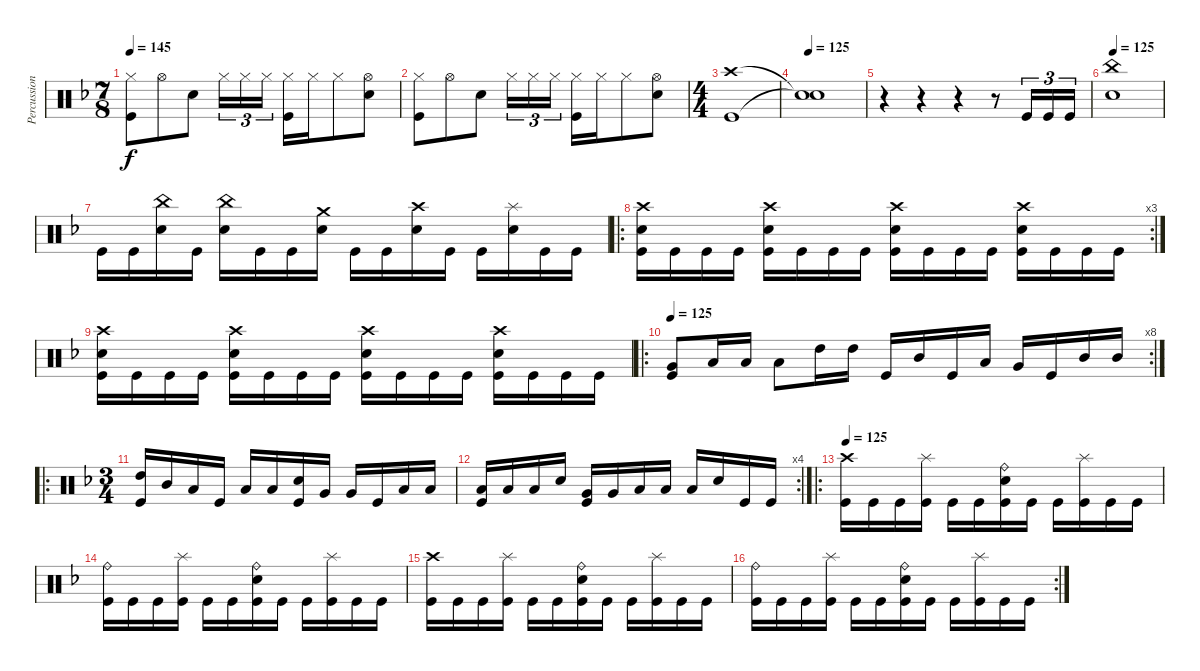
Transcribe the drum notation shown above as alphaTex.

\track ("Percussion" "Percussion") {instrument percussion}
\staff {score}
\articulation defaults
\ts (7 8)
\tempo 145
\clef neutral
\ks f
("Hi-Hat (closed)" "Kick (hit)").8{dy f} "Hi-Hat (open)".8 "Electric Snare (hit)".8 "Hi-Hat (closed)".16{tu (3 2)} "Hi-Hat (closed)".16{tu (3 2)} "Hi-Hat (closed)".16{tu (3 2)} ("Hi-Hat (closed)" "Kick (hit)").16 "Hi-Hat (closed)".16 "Hi-Hat (closed)".8 ("Hi-Hat (open)" "Electric Snare (hit)").8 |
("Hi-Hat (closed)" "Kick (hit)").8 "Hi-Hat (open)".8 "Electric Snare (hit)".8 "Hi-Hat (closed)".16{tu (3 2)} "Hi-Hat (closed)".16{tu (3 2)} "Hi-Hat (closed)".16{tu (3 2)} ("Hi-Hat (closed)" "Kick (hit)").16 "Hi-Hat (closed)".16 "Hi-Hat (closed)".8 ("Hi-Hat (open)" "Electric Snare (hit)").8 |
\ts (4 4)
("Crash high (hit)" "Kick (hit)").1 |
\tempo 125
("Snare (hit)"{t} "Snare (hit)"{t}).1 |
r.4 r.4 r.4 r.8 "Kick (hit)".16{tu (3 2)} "Kick (hit)".16{tu (3 2)} "Kick (hit)".16{tu (3 2)} |
\tempo 125
("China (hit)" "Electric Snare (hit)").1 |
"Kick (hit)".16 "Kick (hit)".16 ("China (hit)" "Electric Snare (hit)").16 "Kick (hit)".16 ("China (hit)" "Electric Snare (hit)").16 "Kick (hit)".16 "Kick (hit)".16 ("Crash medium (hit)" "Electric Snare (hit)").16 "Kick (hit)".16 "Kick (hit)".16 ("Crash high (hit)" "Electric Snare (hit)").16 "Kick (hit)".16 "Kick (hit)".16 ("Splash (hit)" "Electric Snare (hit)").16 "Kick (hit)".16 "Kick (hit)".16 |
\ro
\rc 3
("Crash high (hit)" "Electric Snare (hit)" "Kick (hit)").16 "Kick (hit)".16 "Kick (hit)".16 "Kick (hit)".16 ("Crash high (hit)" "Electric Snare (hit)" "Kick (hit)").16 "Kick (hit)".16 "Kick (hit)".16 "Kick (hit)".16 ("Crash high (hit)" "Electric Snare (hit)" "Kick (hit)").16 "Kick (hit)".16 "Kick (hit)".16 "Kick (hit)".16 ("Crash high (hit)" "Electric Snare (hit)" "Kick (hit)").16 "Kick (hit)".16 "Kick (hit)".16 "Kick (hit)".16 |
("Crash high (hit)" "Electric Snare (hit)" "Kick (hit)").16 "Kick (hit)".16 "Kick (hit)".16 "Kick (hit)".16 ("Crash high (hit)" "Electric Snare (hit)" "Kick (hit)").16 "Kick (hit)".16 "Kick (hit)".16 "Kick (hit)".16 ("Crash high (hit)" "Electric Snare (hit)" "Kick (hit)").16 "Kick (hit)".16 "Kick (hit)".16 "Kick (hit)".16 ("Crash high (hit)" "Electric Snare (hit)" "Kick (hit)").16 "Kick (hit)".16 "Kick (hit)".16 "Kick (hit)".16 |
\ro
\rc 8
\tempo 125
("Very Low Tom (hit)" "Kick (hit)").8 "Low Floor Tom (hit)".16 "Low Tom (hit)".16 "Low Floor Tom (hit)".8 "High Tom (hit)".16 "High Tom (hit)".16 "Kick (hit)".16 "Mid Tom (hit)".16 "Kick (hit)".16 "Low Floor Tom (hit)".16 "Very Low Tom (hit)".16 "Kick (hit)".16 "Mid Tom (hit)".16 "Mid Tom (hit)".16 |
\ro
\ts (3 4)
("High Tom (hit)" "Kick (hit)").16 "Mid Tom (hit)".16 "Low Tom (hit)".16 "Kick (hit)".16 "Low Floor Tom (hit)".16 "Low Floor Tom (hit)".16 ("Electric Snare (hit)" "Kick (hit)").16 "Very Low Tom (hit)".16 "Very Low Tom (hit)".16 "Kick (hit)".16 "Low Tom (hit)".16 "Low Tom (hit)".16 |
\rc 4
("Low Floor Tom (hit)" "Kick (hit)").16 "Low Floor Tom (hit)".16 "Low Floor Tom (hit)".16 "Electric Snare (hit)".16 ("Very Low Tom (hit)" "Kick (hit)").16 "Very Low Tom (hit)".16 "Low Floor Tom (hit)".16 "Low Floor Tom (hit)".16 "Low Floor Tom (hit)".16 "Electric Snare (hit)".16 "Kick (hit)".16 "Kick (hit)".16 |
\ro
\tempo 125
("Crash high (hit)" "Kick (hit)").16 "Kick (hit)".16 "Kick (hit)".16 ("Splash (hit)" "Kick (hit)").16 "Kick (hit)".16 "Kick (hit)".16 ("Ride (bell)" "Electric Snare (hit)" "Kick (hit)").16 "Kick (hit)".16 "Kick (hit)".16 ("Splash (hit)" "Kick (hit)").16 "Kick (hit)".16 "Kick (hit)".16 |
("Ride (bell)" "Kick (hit)").16 "Kick (hit)".16 "Kick (hit)".16 ("Splash (hit)" "Kick (hit)").16 "Kick (hit)".16 "Kick (hit)".16 ("Ride (bell)" "Electric Snare (hit)" "Kick (hit)").16 "Kick (hit)".16 "Kick (hit)".16 ("Splash (hit)" "Kick (hit)").16 "Kick (hit)".16 "Kick (hit)".16 |
("Crash high (hit)" "Kick (hit)").16 "Kick (hit)".16 "Kick (hit)".16 ("Splash (hit)" "Kick (hit)").16 "Kick (hit)".16 "Kick (hit)".16 ("Ride (bell)" "Electric Snare (hit)" "Kick (hit)").16 "Kick (hit)".16 "Kick (hit)".16 ("Splash (hit)" "Kick (hit)").16 "Kick (hit)".16 "Kick (hit)".16 |
\rc 2
("Ride (bell)" "Kick (hit)").16 "Kick (hit)".16 "Kick (hit)".16 ("Splash (hit)" "Kick (hit)").16 "Kick (hit)".16 "Kick (hit)".16 ("Ride (bell)" "Electric Snare (hit)" "Kick (hit)").16 "Kick (hit)".16 "Kick (hit)".16 ("Splash (hit)" "Kick (hit)").16 "Kick (hit)".16 "Kick (hit)".16
